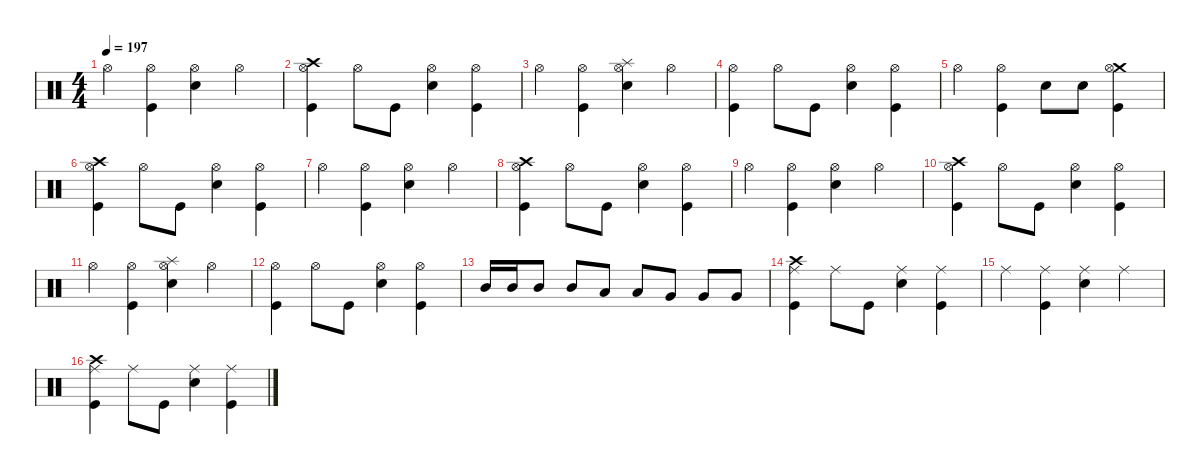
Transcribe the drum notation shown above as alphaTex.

\defaultSystemsLayout 4
\hideDynamics
\bracketExtendMode nobrackets
\singleTrackTrackNamePolicy hidden
\multiTrackTrackNamePolicy hidden
\firstSystemTrackNameMode fullname
\firstSystemTrackNameOrientation horizontal
\otherSystemsTrackNameOrientation horizontal
\track ("Drums" "drm.") {defaultSystemsLayout 4 instrument percussion}
\staff {score}
\articulation defaults
\ts (4 4)
\tempo 197
\clef neutral
\ks c "Hi-Hat (open)".4{dy f beam Down}
("Hi-Hat (open)" "Kick (hit)").4{beam Down} ("Hi-Hat (open)" "Snare (hit) 2").4{beam Down} "Hi-Hat (open)".4{beam Down} |
("Crash high (hit)" "Hi-Hat (open)" "Kick (hit)").4{beam Down} "Hi-Hat (open)".8{beam Down} "Kick (hit)".8{beam Down} ("Hi-Hat (open)" "Snare (hit) 2").4{beam Down} ("Hi-Hat (open)" "Kick (hit)").4{beam Down} |
"Hi-Hat (open)".4{beam Down} ("Hi-Hat (open)" "Kick (hit)").4{beam Down} ("Splash (hit)" "Hi-Hat (open)" "Snare (hit) 2").4{beam Down} "Hi-Hat (open)".4{beam Down} |
("Hi-Hat (open)" "Kick (hit)").4{beam Down} "Hi-Hat (open)".8{beam Down} "Kick (hit)".8{beam Down} ("Hi-Hat (open)" "Snare (hit) 2").4{beam Down} ("Hi-Hat (open)" "Kick (hit)").4{beam Down} |
"Hi-Hat (open)".4{beam Down} ("Hi-Hat (open)" "Kick (hit)").4{beam Down} "Snare (hit) 2".8{beam Down} "Snare (hit) 2".8{beam Down} ("Crash medium (hit)" "Hi-Hat (open)" "Kick (hit)").4{beam Down} |
("Crash high (hit)" "Hi-Hat (open)" "Kick (hit)").4{beam Down} "Hi-Hat (open)".8{beam Down} "Kick (hit)".8{beam Down} ("Hi-Hat (open)" "Snare (hit) 2").4{beam Down} ("Hi-Hat (open)" "Kick (hit)").4{beam Down} |
"Hi-Hat (open)".4{beam Down} ("Hi-Hat (open)" "Kick (hit)").4{beam Down} ("Hi-Hat (open)" "Snare (hit) 2").4{beam Down} "Hi-Hat (open)".4{beam Down} |
("Crash high (hit)" "Hi-Hat (open)" "Kick (hit)").4{beam Down} "Hi-Hat (open)".8{beam Down} "Kick (hit)".8{beam Down} ("Hi-Hat (open)" "Snare (hit) 2").4{beam Down} ("Hi-Hat (open)" "Kick (hit)").4{beam Down} |
"Hi-Hat (open)".4{beam Down} ("Hi-Hat (open)" "Kick (hit)").4{beam Down} ("Hi-Hat (open)" "Snare (hit) 2").4{beam Down} "Hi-Hat (open)".4{beam Down} |
("Crash high (hit)" "Hi-Hat (open)" "Kick (hit)").4{beam Down} "Hi-Hat (open)".8{beam Down} "Kick (hit)".8{beam Down} ("Hi-Hat (open)" "Snare (hit) 2").4{beam Down} ("Hi-Hat (open)" "Kick (hit)").4{beam Down} |
"Hi-Hat (open)".4{beam Down} ("Hi-Hat (open)" "Kick (hit)").4{beam Down} ("Splash (hit)" "Hi-Hat (open)" "Snare (hit) 2").4{beam Down} "Hi-Hat (open)".4{beam Down} |
("Hi-Hat (open)" "Kick (hit)").4{beam Down} "Hi-Hat (open)".8{beam Down} "Kick (hit)".8{beam Down} ("Hi-Hat (open)" "Snare (hit) 2").4{beam Down} ("Hi-Hat (open)" "Kick (hit)").4{beam Down} |
"Mid Tom (hit)".16{beam Up} "Mid Tom (hit)".16{beam Up} "Mid Tom (hit)".8{beam Up} "Mid Tom (hit)".8{beam Up} "Low Tom (hit)".8{beam Up} "Low Tom (hit)".8{beam Up} "Very Low Tom (hit)".8{beam Up} "Very Low Tom (hit)".8{beam Up} "Very Low Tom (hit)".8{beam Up} |
("Crash high (hit)" "Ride (middle)" "Kick (hit)").4{beam Down} "Ride (middle)".8{beam Down} "Kick (hit)".8{beam Down} ("Ride (middle)" "Snare (hit) 2").4{beam Down} ("Ride (middle)" "Kick (hit)").4{beam Down} |
"Ride (middle)".4{beam Down} ("Ride (middle)" "Kick (hit)").4{beam Down} ("Ride (middle)" "Snare (hit) 2").4{beam Down} "Ride (middle)".4{beam Down} |
("Crash high (hit)" "Ride (middle)" "Kick (hit)").4{beam Down} "Ride (middle)".8{beam Down} "Kick (hit)".8{beam Down} ("Ride (middle)" "Snare (hit) 2").4{beam Down} ("Ride (middle)" "Kick (hit)").4{beam Down}
